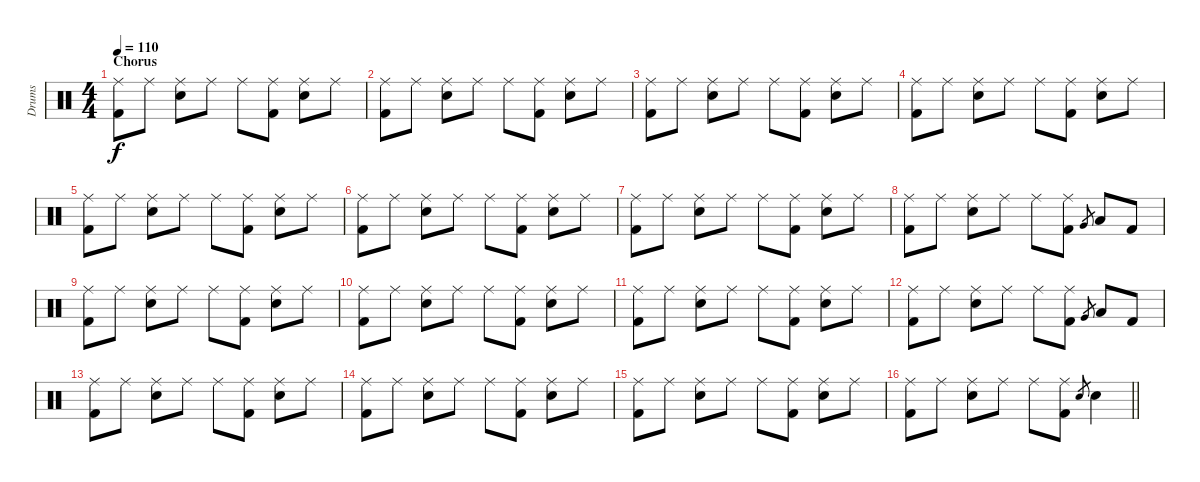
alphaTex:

\track ("Drums" "Drums") {instrument percussion}
\staff {score}
\articulation defaults
\ts (4 4)
\section ("" "Chorus")
\tempo 110
\clef neutral
\ks c
("Ride (middle)" "Kick (hit) 2").8{dy f} "Ride (middle)".8 ("Ride (middle)" "Electric Snare (hit)").8 "Ride (middle)".8 "Ride (middle)".8 ("Ride (middle)" "Kick (hit) 2").8 ("Ride (middle)" "Electric Snare (hit)").8 "Ride (middle)".8 |
("Ride (middle)" "Kick (hit) 2").8 "Ride (middle)".8 ("Ride (middle)" "Electric Snare (hit)").8 "Ride (middle)".8 "Ride (middle)".8 ("Ride (middle)" "Kick (hit) 2").8 ("Ride (middle)" "Electric Snare (hit)").8 "Ride (middle)".8 |
("Ride (middle)" "Kick (hit) 2").8 "Ride (middle)".8 ("Ride (middle)" "Electric Snare (hit)").8 "Ride (middle)".8 "Ride (middle)".8 ("Ride (middle)" "Kick (hit) 2").8 ("Ride (middle)" "Electric Snare (hit)").8 "Ride (middle)".8 |
("Ride (middle)" "Kick (hit) 2").8 "Ride (middle)".8 ("Ride (middle)" "Electric Snare (hit)").8 "Ride (middle)".8 "Ride (middle)".8 ("Ride (middle)" "Kick (hit) 2").8 ("Ride (middle)" "Electric Snare (hit)").8 "Ride (middle)".8 |
("Ride (middle)" "Kick (hit) 2").8 "Ride (middle)".8 ("Ride (middle)" "Electric Snare (hit)").8 "Ride (middle)".8 "Ride (middle)".8 ("Ride (middle)" "Kick (hit) 2").8 ("Ride (middle)" "Electric Snare (hit)").8 "Ride (middle)".8 |
("Ride (middle)" "Kick (hit) 2").8 "Ride (middle)".8 ("Ride (middle)" "Electric Snare (hit)").8 "Ride (middle)".8 "Ride (middle)".8 ("Ride (middle)" "Kick (hit) 2").8 ("Ride (middle)" "Electric Snare (hit)").8 "Ride (middle)".8 |
("Ride (middle)" "Kick (hit) 2").8 "Ride (middle)".8 ("Ride (middle)" "Electric Snare (hit)").8 "Ride (middle)".8 "Ride (middle)".8 ("Ride (middle)" "Kick (hit) 2").8 ("Ride (middle)" "Electric Snare (hit)").8 "Ride (middle)".8 |
("Ride (middle)" "Kick (hit) 2").8 "Ride (middle)".8 ("Ride (middle)" "Electric Snare (hit)").8 "Ride (middle)".8 "Ride (middle)".8 ("Ride (middle)" "Kick (hit) 2").8 "Very Low Tom (hit)".8{gr} "Low Tom (hit)".8 "Kick (hit) 2".8 |
("Ride (middle)" "Kick (hit) 2").8 "Ride (middle)".8 ("Ride (middle)" "Electric Snare (hit)").8 "Ride (middle)".8 "Ride (middle)".8 ("Ride (middle)" "Kick (hit) 2").8 ("Ride (middle)" "Electric Snare (hit)").8 "Ride (middle)".8 |
("Ride (middle)" "Kick (hit) 2").8 "Ride (middle)".8 ("Ride (middle)" "Electric Snare (hit)").8 "Ride (middle)".8 "Ride (middle)".8 ("Ride (middle)" "Kick (hit) 2").8 ("Ride (middle)" "Electric Snare (hit)").8 "Ride (middle)".8 |
("Ride (middle)" "Kick (hit) 2").8 "Ride (middle)".8 ("Ride (middle)" "Electric Snare (hit)").8 "Ride (middle)".8 "Ride (middle)".8 ("Ride (middle)" "Kick (hit) 2").8 ("Ride (middle)" "Electric Snare (hit)").8 "Ride (middle)".8 |
("Ride (middle)" "Kick (hit) 2").8 "Ride (middle)".8 ("Ride (middle)" "Electric Snare (hit)").8 "Ride (middle)".8 "Ride (middle)".8 ("Ride (middle)" "Kick (hit) 2").8 "Very Low Tom (hit)".8{gr} "Low Tom (hit)".8 "Kick (hit) 2".8 |
("Ride (middle)" "Kick (hit) 2").8 "Ride (middle)".8 ("Ride (middle)" "Electric Snare (hit)").8 "Ride (middle)".8 "Ride (middle)".8 ("Ride (middle)" "Kick (hit) 2").8 ("Ride (middle)" "Electric Snare (hit)").8 "Ride (middle)".8 |
("Ride (middle)" "Kick (hit) 2").8 "Ride (middle)".8 ("Ride (middle)" "Electric Snare (hit)").8 "Ride (middle)".8 "Ride (middle)".8 ("Ride (middle)" "Kick (hit) 2").8 ("Ride (middle)" "Electric Snare (hit)").8 "Ride (middle)".8 |
("Ride (middle)" "Kick (hit) 2").8 "Ride (middle)".8 ("Ride (middle)" "Electric Snare (hit)").8 "Ride (middle)".8 "Ride (middle)".8 ("Ride (middle)" "Kick (hit) 2").8 ("Ride (middle)" "Electric Snare (hit)").8 "Ride (middle)".8 |
\barLineRight lightlight
("Ride (middle)" "Kick (hit) 2").8 "Ride (middle)".8 ("Ride (middle)" "Electric Snare (hit)").8 "Ride (middle)".8 "Ride (middle)".8 ("Ride (middle)" "Kick (hit) 2").8 "Electric Snare (hit)".8{gr} "Electric Snare (hit)".4
